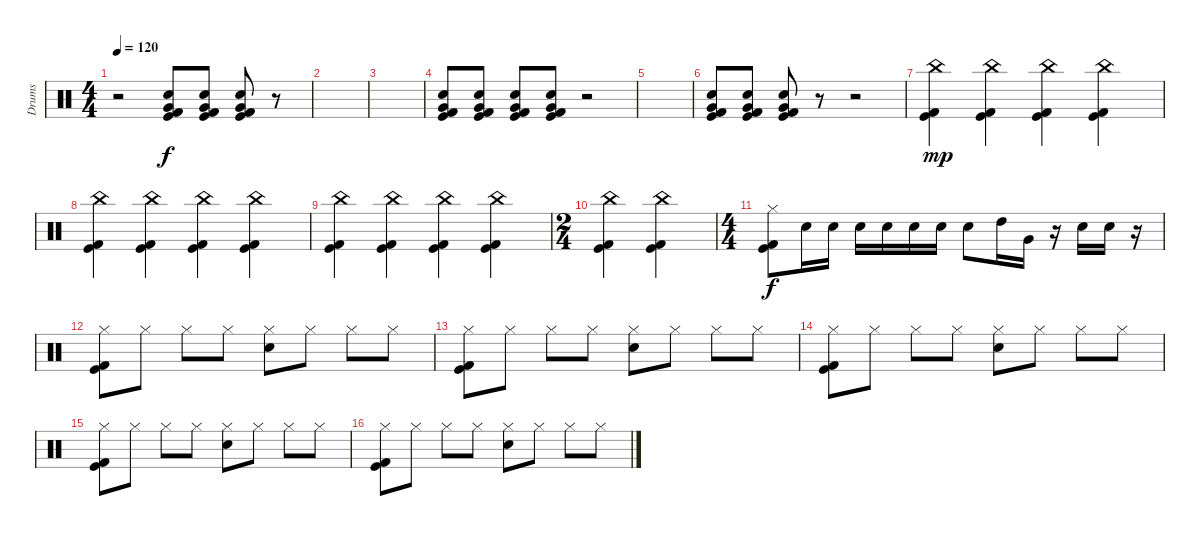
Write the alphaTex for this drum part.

\track ("Drums" "Drums") {instrument percussion}
\staff {score}
\articulation defaults
\ts (4 4)
\tempo 120
\clef neutral
\ks c
r.2{dy f} ("Snare (hit) 2" "Very Low Tom (hit)" "Kick (hit) 2" "Kick (hit)").8 ("Snare (hit) 2" "Very Low Tom (hit)" "Kick (hit) 2" "Kick (hit)").8 ("Snare (hit) 2" "Very Low Tom (hit)" "Kick (hit) 2" "Kick (hit)").8 r.8 |
|
|
("Snare (hit) 2" "Very Low Tom (hit)" "Kick (hit) 2" "Kick (hit)").8 ("Snare (hit) 2" "Very Low Tom (hit)" "Kick (hit) 2" "Kick (hit)").8 ("Snare (hit) 2" "Very Low Tom (hit)" "Kick (hit) 2" "Kick (hit)").8 ("Snare (hit) 2" "Very Low Tom (hit)" "Kick (hit) 2" "Kick (hit)").8 r.2 |
|
("Snare (hit) 2" "Very Low Tom (hit)" "Kick (hit) 2" "Kick (hit)").8 ("Snare (hit) 2" "Very Low Tom (hit)" "Kick (hit) 2" "Kick (hit)").8 ("Snare (hit) 2" "Very Low Tom (hit)" "Kick (hit) 2" "Kick (hit)").8 r.8 r.2 |
("China (hit)" "Kick (hit) 2" "Kick (hit)").4{dy mp} ("China (hit)" "Kick (hit) 2" "Kick (hit)").4 ("China (hit)" "Kick (hit) 2" "Kick (hit)").4 ("China (hit)" "Kick (hit) 2" "Kick (hit)").4 |
("China (hit)" "Kick (hit) 2" "Kick (hit)").4 ("China (hit)" "Kick (hit) 2" "Kick (hit)").4 ("China (hit)" "Kick (hit) 2" "Kick (hit)").4 ("China (hit)" "Kick (hit) 2" "Kick (hit)").4 |
("China (hit)" "Kick (hit) 2" "Kick (hit)").4 ("China (hit)" "Kick (hit) 2" "Kick (hit)").4 ("China (hit)" "Kick (hit) 2" "Kick (hit)").4 ("China (hit)" "Kick (hit) 2" "Kick (hit)").4 |
\ts (2 4)
("China (hit)" "Kick (hit) 2" "Kick (hit)").4 ("China (hit)" "Kick (hit) 2" "Kick (hit)").4 |
\ts (4 4)
("Hi-Hat (closed)" "Kick (hit) 2" "Kick (hit)").8{dy f} "Snare (hit) 2".16 "Snare (hit) 2".16 "Snare (hit) 2".16 "Snare (hit) 2".16 "Snare (hit) 2".16 "Snare (hit) 2".16 "Snare (hit) 2".8 "High Tom (hit)".16 "Very Low Tom (hit)".16 r.16 "Snare (hit) 2".16 "Snare (hit) 2".16 r.16 |
("Hi-Hat (closed)" "Kick (hit) 2" "Kick (hit)").8 "Hi-Hat (closed)".8 "Hi-Hat (closed)".8 "Hi-Hat (closed)".8 ("Hi-Hat (closed)" "Snare (hit) 2").8 "Hi-Hat (closed)".8 "Hi-Hat (closed)".8 "Hi-Hat (closed)".8 |
("Hi-Hat (closed)" "Kick (hit) 2" "Kick (hit)").8 "Hi-Hat (closed)".8 "Hi-Hat (closed)".8 "Hi-Hat (closed)".8 ("Hi-Hat (closed)" "Snare (hit) 2").8 "Hi-Hat (closed)".8 "Hi-Hat (closed)".8 "Hi-Hat (closed)".8 |
("Hi-Hat (closed)" "Kick (hit) 2" "Kick (hit)").8 "Hi-Hat (closed)".8 "Hi-Hat (closed)".8 "Hi-Hat (closed)".8 ("Hi-Hat (closed)" "Snare (hit) 2").8 "Hi-Hat (closed)".8 "Hi-Hat (closed)".8 "Hi-Hat (closed)".8 |
("Hi-Hat (closed)" "Kick (hit) 2" "Kick (hit)").8 "Hi-Hat (closed)".8 "Hi-Hat (closed)".8 "Hi-Hat (closed)".8 ("Hi-Hat (closed)" "Snare (hit) 2").8 "Hi-Hat (closed)".8 "Hi-Hat (closed)".8 "Hi-Hat (closed)".8 |
("Hi-Hat (closed)" "Kick (hit) 2" "Kick (hit)").8 "Hi-Hat (closed)".8 "Hi-Hat (closed)".8 "Hi-Hat (closed)".8 ("Hi-Hat (closed)" "Snare (hit) 2").8 "Hi-Hat (closed)".8 "Hi-Hat (closed)".8 "Hi-Hat (closed)".8
